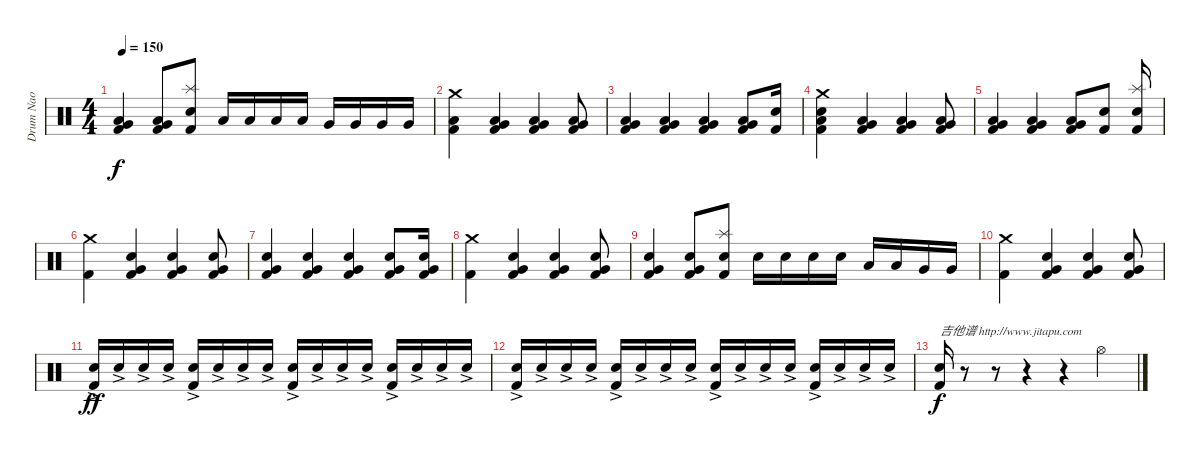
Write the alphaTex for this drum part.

\track ("Drum Nao" "Drum Nao") {instrument percussion}
\staff {score}
\articulation defaults
\ts (4 4)
\tempo 150
\clef neutral
\ks c
("Very Low Tom (hit)" "Low Tom (hit)" "Kick (hit) 2").4{dy f} ("Very Low Tom (hit)" "Low Tom (hit)" "Kick (hit) 2").8 ("Splash (hit)" "Electric Snare (hit)" "Kick (hit) 2").8 "Low Tom (hit)".16 "Low Tom (hit)".16 "Low Tom (hit)".16 "Low Tom (hit)".16 "Very Low Tom (hit)".16 "Very Low Tom (hit)".16 "Very Low Tom (hit)".16 "Very Low Tom (hit)".16 |
("Crash medium (hit)" "Low Tom (hit)" "Kick (hit) 2").4 ("Very Low Tom (hit)" "Low Tom (hit)" "Kick (hit) 2").4 ("Very Low Tom (hit)" "Low Tom (hit)" "Kick (hit) 2").4 ("Very Low Tom (hit)" "Low Tom (hit)" "Kick (hit) 2").8 |
("Very Low Tom (hit)" "Low Tom (hit)" "Kick (hit) 2").4 ("Very Low Tom (hit)" "Low Tom (hit)" "Kick (hit) 2").4 ("Very Low Tom (hit)" "Low Tom (hit)" "Kick (hit) 2").4 ("Very Low Tom (hit)" "Low Tom (hit)" "Kick (hit) 2").8 ("Electric Snare (hit)" "Kick (hit) 2").16 |
("Crash medium (hit)" "Electric Snare (hit)" "Low Tom (hit)" "Kick (hit) 2").4 ("Very Low Tom (hit)" "Low Tom (hit)" "Kick (hit) 2").4 ("Very Low Tom (hit)" "Low Tom (hit)" "Kick (hit) 2").4 ("Very Low Tom (hit)" "Low Tom (hit)" "Kick (hit) 2").8 |
("Very Low Tom (hit)" "Low Tom (hit)" "Kick (hit) 2").4 ("Very Low Tom (hit)" "Low Tom (hit)" "Kick (hit) 2").4 ("Very Low Tom (hit)" "Low Tom (hit)" "Kick (hit) 2").8 ("Electric Snare (hit)" "Kick (hit) 2").8 ("Splash (hit)" "Electric Snare (hit)" "Kick (hit) 2").16 |
("Crash medium (hit)" "Kick (hit) 2").4 ("Very Low Tom (hit)" "Electric Snare (hit)" "Kick (hit) 2").4 ("Very Low Tom (hit)" "Electric Snare (hit)" "Kick (hit) 2").4 ("Very Low Tom (hit)" "Electric Snare (hit)" "Kick (hit) 2").8 |
("Very Low Tom (hit)" "Electric Snare (hit)" "Kick (hit) 2").4 ("Very Low Tom (hit)" "Electric Snare (hit)" "Kick (hit) 2").4 ("Very Low Tom (hit)" "Electric Snare (hit)" "Kick (hit) 2").4 ("Very Low Tom (hit)" "Electric Snare (hit)" "Kick (hit) 2").8 ("Very Low Tom (hit)" "Electric Snare (hit)" "Kick (hit) 2").16 |
("Crash medium (hit)" "Kick (hit) 2").4 ("Very Low Tom (hit)" "Electric Snare (hit)" "Kick (hit) 2").4 ("Very Low Tom (hit)" "Electric Snare (hit)" "Kick (hit) 2").4 ("Very Low Tom (hit)" "Electric Snare (hit)" "Kick (hit) 2").8 |
("Very Low Tom (hit)" "Electric Snare (hit)" "Kick (hit) 2").4 ("Very Low Tom (hit)" "Electric Snare (hit)" "Kick (hit) 2").8 ("Splash (hit)" "Electric Snare (hit)" "Kick (hit) 2").8 "Electric Snare (hit)".16 "Electric Snare (hit)".16 "Electric Snare (hit)".16 "Electric Snare (hit)".16 "Low Tom (hit)".16 "Low Tom (hit)".16 "Very Low Tom (hit)".16 "Very Low Tom (hit)".16 |
("Crash medium (hit)" "Kick (hit) 2").4 ("Very Low Tom (hit)" "Electric Snare (hit)" "Kick (hit) 2").4 ("Very Low Tom (hit)" "Electric Snare (hit)" "Kick (hit) 2").4 ("Very Low Tom (hit)" "Electric Snare (hit)" "Kick (hit) 2").8 |
("Electric Snare (hit)"{ac} "Kick (hit) 2").16{dy ff} "Electric Snare (hit)"{ac}.16 "Electric Snare (hit)"{ac}.16 "Electric Snare (hit)"{ac}.16 ("Electric Snare (hit)"{ac} "Kick (hit) 2").16 "Electric Snare (hit)"{ac}.16 "Electric Snare (hit)"{ac}.16 "Electric Snare (hit)"{ac}.16 ("Electric Snare (hit)"{ac} "Kick (hit) 2").16 "Electric Snare (hit)"{ac}.16 "Electric Snare (hit)"{ac}.16 "Electric Snare (hit)"{ac}.16 ("Electric Snare (hit)"{ac} "Kick (hit) 2").16 "Electric Snare (hit)"{ac}.16 "Electric Snare (hit)"{ac}.16 "Electric Snare (hit)"{ac}.16 |
("Electric Snare (hit)"{ac} "Kick (hit) 2").16 "Electric Snare (hit)"{ac}.16 "Electric Snare (hit)"{ac}.16 "Electric Snare (hit)"{ac}.16 ("Electric Snare (hit)"{ac} "Kick (hit) 2").16 "Electric Snare (hit)"{ac}.16 "Electric Snare (hit)"{ac}.16 "Electric Snare (hit)"{ac}.16 ("Electric Snare (hit)"{ac} "Kick (hit) 2").16 "Electric Snare (hit)"{ac}.16 "Electric Snare (hit)"{ac}.16 "Electric Snare (hit)"{ac}.16 ("Electric Snare (hit)"{ac} "Kick (hit) 2").16 "Electric Snare (hit)"{ac}.16 "Electric Snare (hit)"{ac}.16 "Electric Snare (hit)"{ac}.16 |
("Electric Snare (hit)" "Kick (hit) 2").16{txt "吉他谱 http://www.jitapu.com" dy f} r.8 r.8 r.4 r.4 "Hi-Hat (open)".4
